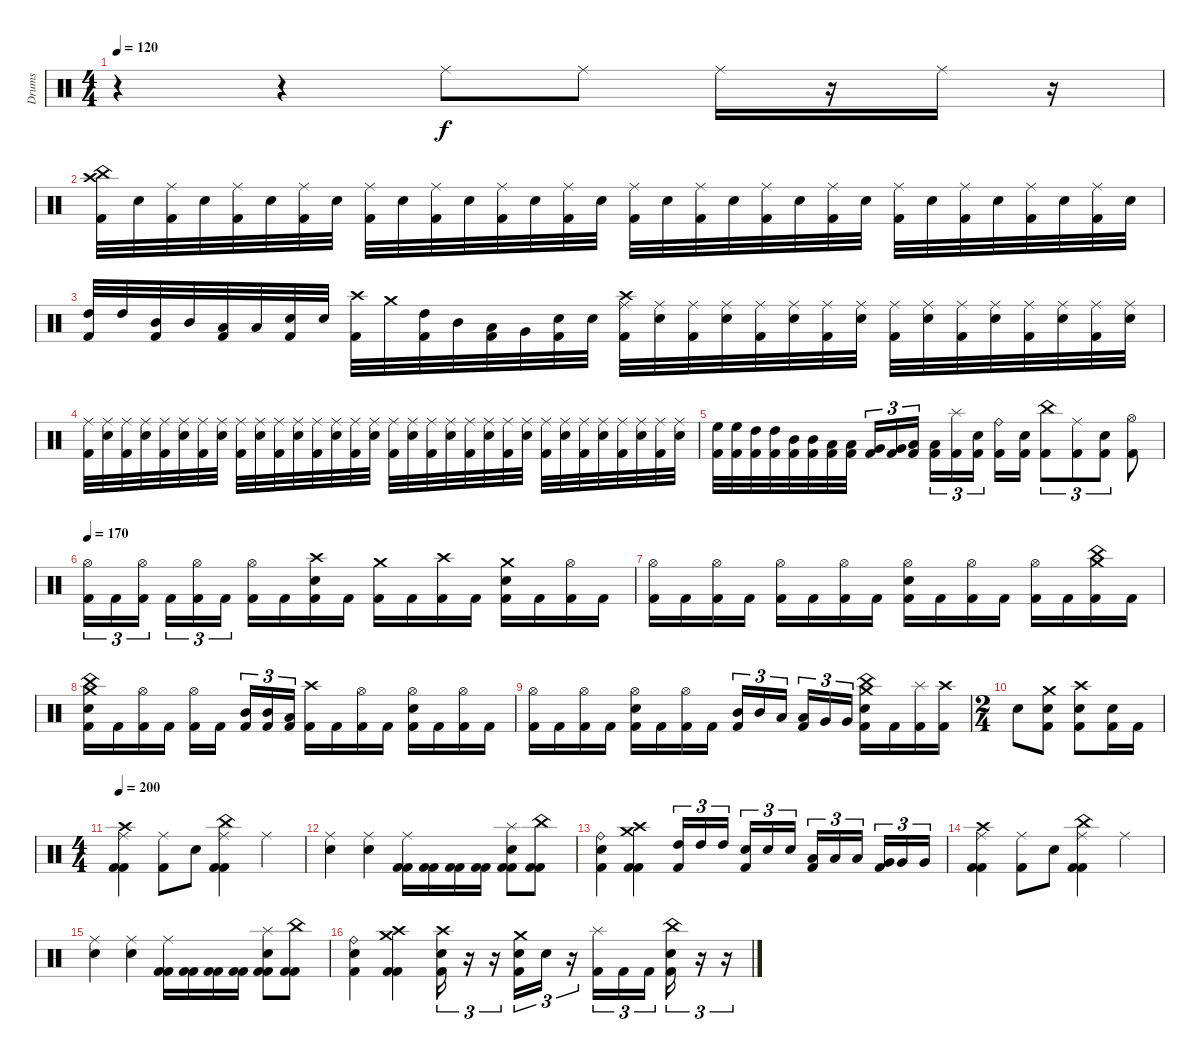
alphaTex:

\track ("Drums" "Drums") {instrument percussion}
\staff {score}
\articulation defaults
\ts (4 4)
\tempo 120
\clef neutral
\ks c
r.4{dy f} r.4 "Ride (middle)".8 "Ride (middle)".8 "Ride (middle)".16 r.16 "Ride (middle)".16 r.16 |
("Crash high (hit)" "China (hit)" "Kick (hit) 2").32 "Electric Snare (hit)".32 ("Ride (middle)" "Kick (hit) 2").32 "Electric Snare (hit)".32 ("Ride (middle)" "Kick (hit) 2").32 "Electric Snare (hit)".32 ("Ride (middle)" "Kick (hit) 2").32 "Electric Snare (hit)".32 ("Ride (middle)" "Kick (hit) 2").32 "Electric Snare (hit)".32 ("Ride (middle)" "Kick (hit) 2").32 "Electric Snare (hit)".32 ("Ride (middle)" "Kick (hit) 2").32 "Electric Snare (hit)".32 ("Ride (middle)" "Kick (hit) 2").32 "Electric Snare (hit)".32 ("Ride (middle)" "Kick (hit) 2").32 "Electric Snare (hit)".32 ("Ride (middle)" "Kick (hit) 2").32 "Electric Snare (hit)".32 ("Ride (middle)" "Kick (hit) 2").32 "Electric Snare (hit)".32 ("Ride (middle)" "Kick (hit) 2").32 "Electric Snare (hit)".32 ("Ride (middle)" "Kick (hit) 2").32 "Electric Snare (hit)".32 ("Ride (middle)" "Kick (hit) 2").32 "Electric Snare (hit)".32 ("Ride (middle)" "Kick (hit) 2").32 "Electric Snare (hit)".32 ("Ride (middle)" "Kick (hit) 2").32 "Electric Snare (hit)".32 |
("High Tom (hit)" "Kick (hit) 2").32 "High Tom (hit)".32 ("Mid Tom (hit)" "Kick (hit) 2").32 "Mid Tom (hit)".32 ("Low Tom (hit)" "Kick (hit) 2").32 "Low Tom (hit)".32 ("Electric Snare (hit)" "Kick (hit) 2").32 "Electric Snare (hit)".32 ("Crash high (hit)" "Kick (hit) 2").32 "Crash medium (hit)".32 ("High Tom (hit)" "Kick (hit) 2").32 "Mid Tom (hit)".32 ("Low Tom (hit)" "Kick (hit) 2").32 "Very Low Tom (hit)".32 ("Electric Snare (hit)" "Kick (hit) 2").32 "Electric Snare (hit)".32 ("Crash high (hit)" "Ride (middle)" "Kick (hit) 2").32 ("Electric Snare (hit)" "Ride (middle)").32 ("Ride (middle)" "Kick (hit) 2").32 ("Electric Snare (hit)" "Ride (middle)").32 ("Ride (middle)" "Kick (hit) 2").32 ("Electric Snare (hit)" "Ride (middle)").32 ("Ride (middle)" "Kick (hit) 2").32 ("Electric Snare (hit)" "Ride (middle)").32 ("Ride (middle)" "Kick (hit) 2").32 ("Electric Snare (hit)" "Ride (middle)").32 ("Ride (middle)" "Kick (hit) 2").32 ("Electric Snare (hit)" "Ride (middle)").32 ("Ride (middle)" "Kick (hit) 2").32 ("Electric Snare (hit)" "Ride (middle)").32 ("Ride (middle)" "Kick (hit) 2").32 ("Electric Snare (hit)" "Ride (middle)").32 |
("Ride (middle)" "Kick (hit) 2").32 ("Electric Snare (hit)" "Ride (middle)").32 ("Ride (middle)" "Kick (hit) 2").32 ("Electric Snare (hit)" "Ride (middle)").32 ("Ride (middle)" "Kick (hit) 2").32 ("Electric Snare (hit)" "Ride (middle)").32 ("Ride (middle)" "Kick (hit) 2").32 ("Electric Snare (hit)" "Ride (middle)").32 ("Ride (middle)" "Kick (hit) 2").32 ("Electric Snare (hit)" "Ride (middle)").32 ("Ride (middle)" "Kick (hit) 2").32 ("Electric Snare (hit)" "Ride (middle)").32 ("Ride (middle)" "Kick (hit) 2").32 ("Electric Snare (hit)" "Ride (middle)").32 ("Ride (middle)" "Kick (hit) 2").32 ("Electric Snare (hit)" "Ride (middle)").32 ("Ride (middle)" "Kick (hit) 2").32 ("Electric Snare (hit)" "Ride (middle)").32 ("Ride (middle)" "Kick (hit) 2").32 ("Electric Snare (hit)" "Ride (middle)").32 ("Ride (middle)" "Kick (hit) 2").32 ("Electric Snare (hit)" "Ride (middle)").32 ("Ride (middle)" "Kick (hit) 2").32 ("Electric Snare (hit)" "Ride (middle)").32 ("Ride (middle)" "Kick (hit) 2").32 ("Electric Snare (hit)" "Ride (middle)").32 ("Ride (middle)" "Kick (hit) 2").32 ("Electric Snare (hit)" "Ride (middle)").32 ("Ride (middle)" "Kick (hit) 2").32 ("Electric Snare (hit)" "Ride (middle)").32 ("Ride (middle)" "Kick (hit) 2").32 ("Electric Snare (hit)" "Ride (middle)").32 |
("High Floor Tom (hit)" "Kick (hit) 2").32 ("High Floor Tom (hit)" "Kick (hit) 2").32 ("High Tom (hit)" "Kick (hit) 2").32 ("High Tom (hit)" "Kick (hit) 2").32 ("Mid Tom (hit)" "Kick (hit) 2").32 ("Mid Tom (hit)" "Kick (hit) 2").32 ("Low Tom (hit)" "Kick (hit) 2").32 ("Low Tom (hit)" "Kick (hit) 2").32 ("Very Low Tom (hit)" "Kick (hit) 2").16{tu (3 2)} ("Very Low Tom (hit)" "Kick (hit) 2").16{tu (3 2)} ("Low Floor Tom (hit)" "Kick (hit) 2").16{tu (3 2)} ("Low Floor Tom (hit)" "Kick (hit) 2").16{tu (3 2)} ("Splash (hit)" "Kick (hit) 2").16{tu (3 2)} ("Electric Snare (hit)" "Kick (hit) 2").16{tu (3 2)} ("Ride (bell)" "Kick (hit) 2").16 ("Electric Snare (hit)" "Kick (hit) 2").16 ("China (hit)" "Kick (hit) 2").8{tu (3 2)} ("Ride (middle)" "Kick (hit) 2").8{tu (3 2)} ("Electric Snare (hit)" "Kick (hit) 2").8{tu (3 2)} ("Hi-Hat (open)" "Kick (hit) 2").8 |
\tempo 170
("Hi-Hat (open)" "Kick (hit) 2").16{tu (3 2)} "Kick (hit) 2".16{tu (3 2)} ("Hi-Hat (open)" "Kick (hit) 2").16{tu (3 2)} "Kick (hit) 2".16{tu (3 2)} ("Hi-Hat (open)" "Kick (hit) 2").16{tu (3 2)} "Kick (hit) 2".16{tu (3 2)} ("Hi-Hat (open)" "Kick (hit) 2").16 "Kick (hit) 2".16 ("Crash high (hit)" "Electric Snare (hit)" "Kick (hit) 2").16 "Kick (hit) 2".16 ("Crash medium (hit)" "Kick (hit) 2").16 "Kick (hit) 2".16 ("Crash high (hit)" "Kick (hit) 2").16 "Kick (hit) 2".16 ("Crash medium (hit)" "Electric Snare (hit)" "Kick (hit) 2").16 "Kick (hit) 2".16 ("Hi-Hat (open)" "Kick (hit) 2").16 "Kick (hit) 2".16 |
("Hi-Hat (open)" "Kick (hit) 2").16 "Kick (hit) 2".16 ("Hi-Hat (open)" "Kick (hit) 2").16 "Kick (hit) 2".16 ("Hi-Hat (open)" "Kick (hit) 2").16 "Kick (hit) 2".16 ("Hi-Hat (open)" "Kick (hit) 2").16 "Kick (hit) 2".16 ("Hi-Hat (open)" "Electric Snare (hit)" "Kick (hit) 2").16 "Kick (hit) 2".16 ("Hi-Hat (open)" "Kick (hit) 2").16 "Kick (hit) 2".16 ("Hi-Hat (open)" "Kick (hit) 2").16 "Kick (hit) 2".16 ("Crash medium (hit)" "China (hit)" "Kick (hit) 2").16 "Kick (hit) 2".16 |
("Crash medium (hit)" "China (hit)" "Electric Snare (hit)" "Kick (hit) 2").16 "Kick (hit) 2".16 ("Hi-Hat (open)" "Kick (hit) 2").16 "Kick (hit) 2".16 ("Hi-Hat (open)" "Kick (hit) 2").16 "Kick (hit) 2".16 ("Mid Tom (hit)" "Kick (hit) 2").16{tu (3 2)} ("Mid Tom (hit)" "Kick (hit) 2").16{tu (3 2)} ("Low Tom (hit)" "Kick (hit) 2").16{tu (3 2)} ("Crash high (hit)" "Kick (hit) 2").16 "Kick (hit) 2".16 ("Hi-Hat (open)" "Kick (hit) 2").16 "Kick (hit) 2".16 ("Hi-Hat (open)" "Electric Snare (hit)" "Kick (hit) 2").16 "Kick (hit) 2".16 ("Hi-Hat (open)" "Kick (hit) 2").16 "Kick (hit) 2".16 |
("Hi-Hat (open)" "Kick (hit) 2").16 "Kick (hit) 2".16 ("Hi-Hat (open)" "Kick (hit) 2").16 "Kick (hit) 2".16 ("Hi-Hat (open)" "Electric Snare (hit)" "Kick (hit) 2").16 "Kick (hit) 2".16 ("Hi-Hat (open)" "Kick (hit) 2").16 "Kick (hit) 2".16 ("Mid Tom (hit)" "Kick (hit) 2").16{tu (3 2)} "Mid Tom (hit)".16{tu (3 2)} "Low Tom (hit)".16{tu (3 2)} ("Low Tom (hit)" "Kick (hit) 2").16{tu (3 2)} "Very Low Tom (hit)".16{tu (3 2)} "Very Low Tom (hit)".16{tu (3 2)} ("Crash medium (hit)" "China (hit)" "Electric Snare (hit)" "Kick (hit) 2").16 "Kick (hit) 2".16 ("Splash (hit)" "Kick (hit) 2").16 ("Crash high (hit)" "Kick (hit) 2").16 |
\ts (2 4)
"Electric Snare (hit)".8 ("Crash medium (hit)" "Electric Snare (hit)" "Kick (hit) 2").8 ("Crash high (hit)" "Electric Snare (hit)" "Kick (hit) 2").8 ("Electric Snare (hit)" "Kick (hit) 2").16 "Kick (hit) 2".16 |
\ts (4 4)
\tempo 200
("Crash high (hit)" "Ride (middle)" "Kick (hit) 2" "Kick (hit) 2").4 ("Ride (middle)" "Kick (hit) 2").8 "Electric Snare (hit)".8 ("China (hit)" "Ride (middle)" "Kick (hit) 2" "Kick (hit) 2").4 "Ride (middle)".4 |
("Electric Snare (hit)" "Ride (middle)").4 ("Electric Snare (hit)" "Ride (middle)").4 ("Kick (hit) 2" "Ride (middle)" "Kick (hit) 2").16 ("Kick (hit) 2" "Kick (hit) 2").16 ("Kick (hit) 2" "Kick (hit) 2").16 ("Kick (hit) 2" "Kick (hit) 2").16 ("Electric Snare (hit)" "Splash (hit)" "Kick (hit) 2" "Kick (hit) 2").8 ("China (hit)" "Kick (hit) 2" "Kick (hit) 2").8 |
("Ride (bell)" "Electric Snare (hit)" "Kick (hit) 2").4 ("Crash medium (hit)" "Crash high (hit)" "Kick (hit) 2" "Kick (hit) 2").4 ("High Tom (hit)" "Kick (hit) 2").16{tu (3 2)} "High Tom (hit)".16{tu (3 2)} "High Tom (hit)".16{tu (3 2)} ("Electric Snare (hit)" "Kick (hit) 2").16{tu (3 2)} "Electric Snare (hit)".16{tu (3 2)} "Electric Snare (hit)".16{tu (3 2)} ("Low Tom (hit)" "Kick (hit) 2").16{tu (3 2)} "Low Tom (hit)".16{tu (3 2)} "Low Tom (hit)".16{tu (3 2)} ("Very Low Tom (hit)" "Kick (hit) 2").16{tu (3 2)} "Very Low Tom (hit)".16{tu (3 2)} "Very Low Tom (hit)".16{tu (3 2)} |
("Crash high (hit)" "Ride (middle)" "Kick (hit) 2" "Kick (hit) 2").4 ("Ride (middle)" "Kick (hit) 2").8 "Electric Snare (hit)".8 ("China (hit)" "Ride (middle)" "Kick (hit) 2" "Kick (hit) 2").4 "Ride (middle)".4 |
("Electric Snare (hit)" "Ride (middle)").4 ("Electric Snare (hit)" "Ride (middle)").4 ("Kick (hit) 2" "Ride (middle)" "Kick (hit) 2").16 ("Kick (hit) 2" "Kick (hit) 2").16 ("Kick (hit) 2" "Kick (hit) 2").16 ("Kick (hit) 2" "Kick (hit) 2").16 ("Electric Snare (hit)" "Splash (hit)" "Kick (hit) 2" "Kick (hit) 2").8 ("China (hit)" "Kick (hit) 2" "Kick (hit) 2").8 |
("Ride (bell)" "Electric Snare (hit)" "Kick (hit) 2").4 ("Crash medium (hit)" "Crash high (hit)" "Kick (hit) 2" "Kick (hit) 2").4 ("Crash high (hit)" "Electric Snare (hit)" "Kick (hit) 2").16{tu (3 2)} r.16{tu (3 2)} r.16{tu (3 2)} ("Crash medium (hit)" "Electric Snare (hit)" "Kick (hit) 2").16{tu (3 2)} "Electric Snare (hit)".16{tu (3 2)} r.16{tu (3 2)} ("Splash (hit)" "Kick (hit) 2").16{tu (3 2)} "Kick (hit) 2".16{tu (3 2)} "Kick (hit) 2".16{tu (3 2)} ("China (hit)" "Electric Snare (hit)" "Kick (hit) 2").16{tu (3 2)} r.16{tu (3 2)} r.16{tu (3 2)}
